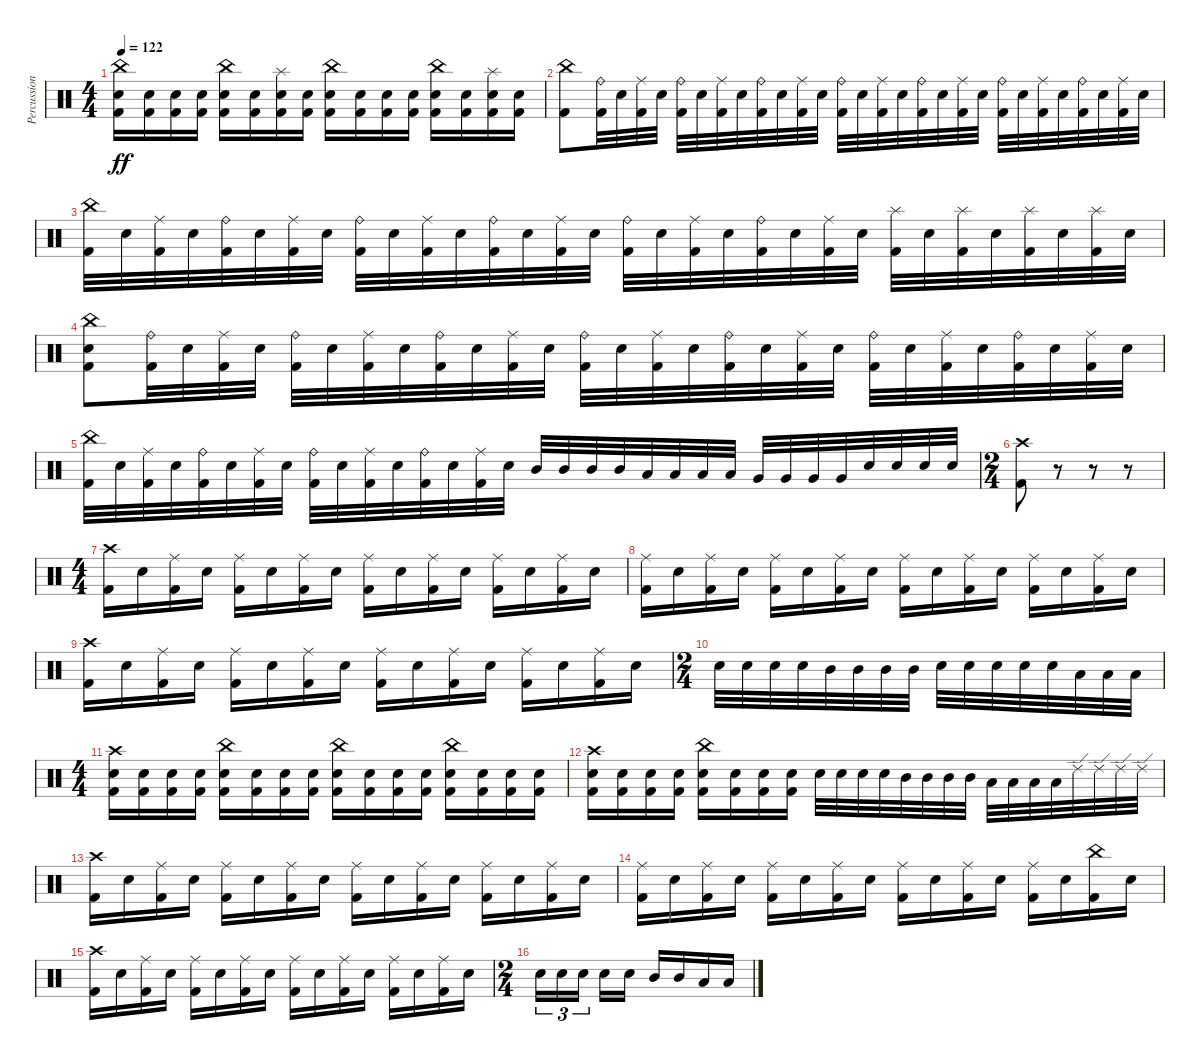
\track ("Percussion" "Percussion") {instrument percussion}
\staff {score}
\articulation defaults
\ts (4 4)
\tempo 122
\clef neutral
\ks c
("China (hit)" "Electric Snare (hit)" "Kick (hit) 2").16{dy ff} ("Electric Snare (hit)" "Kick (hit) 2").16 ("Electric Snare (hit)" "Kick (hit) 2").16 ("Electric Snare (hit)" "Kick (hit) 2").16 ("China (hit)" "Electric Snare (hit)" "Kick (hit) 2").16 ("Electric Snare (hit)" "Kick (hit) 2").16 ("Splash (hit)" "Electric Snare (hit)" "Kick (hit) 2").16 ("Electric Snare (hit)" "Kick (hit) 2").16 ("China (hit)" "Electric Snare (hit)" "Kick (hit) 2").16 ("Electric Snare (hit)" "Kick (hit) 2").16 ("Electric Snare (hit)" "Kick (hit) 2").16 ("Electric Snare (hit)" "Kick (hit) 2").16 ("China (hit)" "Electric Snare (hit)" "Kick (hit) 2").16 ("Electric Snare (hit)" "Kick (hit) 2").16 ("Splash (hit)" "Electric Snare (hit)" "Kick (hit) 2").16 ("Electric Snare (hit)" "Kick (hit) 2").16 |
("China (hit)" "Kick (hit) 2").8 ("Ride (bell)" "Kick (hit) 2").32 "Electric Snare (hit)".32 ("Ride (middle)" "Kick (hit) 2").32 "Electric Snare (hit)".32 ("Ride (bell)" "Kick (hit) 2").32 "Electric Snare (hit)".32 ("Ride (middle)" "Kick (hit) 2").32 "Electric Snare (hit)".32 ("Ride (bell)" "Kick (hit) 2").32 "Electric Snare (hit)".32 ("Ride (middle)" "Kick (hit) 2").32 "Electric Snare (hit)".32 ("Ride (bell)" "Kick (hit) 2").32 "Electric Snare (hit)".32 ("Ride (middle)" "Kick (hit) 2").32 "Electric Snare (hit)".32 ("Ride (bell)" "Kick (hit) 2").32 "Electric Snare (hit)".32 ("Ride (middle)" "Kick (hit) 2").32 "Electric Snare (hit)".32 ("Ride (bell)" "Kick (hit) 2").32 "Electric Snare (hit)".32 ("Ride (middle)" "Kick (hit) 2").32 "Electric Snare (hit)".32 ("Ride (bell)" "Kick (hit) 2").32 "Electric Snare (hit)".32 ("Ride (middle)" "Kick (hit) 2").32 "Electric Snare (hit)".32 |
("China (hit)" "Kick (hit) 2").32 "Electric Snare (hit)".32 ("Ride (middle)" "Kick (hit) 2").32 "Electric Snare (hit)".32 ("Ride (bell)" "Kick (hit) 2").32 "Electric Snare (hit)".32 ("Ride (middle)" "Kick (hit) 2").32 "Electric Snare (hit)".32 ("Ride (bell)" "Kick (hit) 2").32 "Electric Snare (hit)".32 ("Ride (middle)" "Kick (hit) 2").32 "Electric Snare (hit)".32 ("Ride (bell)" "Kick (hit) 2").32 "Electric Snare (hit)".32 ("Ride (middle)" "Kick (hit) 2").32 "Electric Snare (hit)".32 ("Ride (bell)" "Kick (hit) 2").32 "Electric Snare (hit)".32 ("Ride (middle)" "Kick (hit) 2").32 "Electric Snare (hit)".32 ("Ride (bell)" "Kick (hit) 2").32 "Electric Snare (hit)".32 ("Ride (middle)" "Kick (hit) 2").32 "Electric Snare (hit)".32 ("Splash (hit)" "Kick (hit) 2").32 "Electric Snare (hit)".32 ("Splash (hit)" "Kick (hit) 2").32 "Electric Snare (hit)".32 ("Splash (hit)" "Kick (hit) 2").32 "Electric Snare (hit)".32 ("Splash (hit)" "Kick (hit) 2").32 "Electric Snare (hit)".32 |
("China (hit)" "Electric Snare (hit)" "Kick (hit) 2").8 ("Ride (bell)" "Kick (hit) 2").32 "Electric Snare (hit)".32 ("Ride (middle)" "Kick (hit) 2").32 "Electric Snare (hit)".32 ("Ride (bell)" "Kick (hit) 2").32 "Electric Snare (hit)".32 ("Ride (middle)" "Kick (hit) 2").32 "Electric Snare (hit)".32 ("Ride (bell)" "Kick (hit) 2").32 "Electric Snare (hit)".32 ("Ride (middle)" "Kick (hit) 2").32 "Electric Snare (hit)".32 ("Ride (bell)" "Kick (hit) 2").32 "Electric Snare (hit)".32 ("Ride (middle)" "Kick (hit) 2").32 "Electric Snare (hit)".32 ("Ride (bell)" "Kick (hit) 2").32 "Electric Snare (hit)".32 ("Ride (middle)" "Kick (hit) 2").32 "Electric Snare (hit)".32 ("Ride (bell)" "Kick (hit) 2").32 "Electric Snare (hit)".32 ("Ride (middle)" "Kick (hit) 2").32 "Electric Snare (hit)".32 ("Ride (bell)" "Kick (hit) 2").32 "Electric Snare (hit)".32 ("Ride (middle)" "Kick (hit) 2").32 "Electric Snare (hit)".32 |
("China (hit)" "Kick (hit) 2").32 "Electric Snare (hit)".32 ("Ride (middle)" "Kick (hit) 2").32 "Electric Snare (hit)".32 ("Ride (bell)" "Kick (hit) 2").32 "Electric Snare (hit)".32 ("Ride (middle)" "Kick (hit) 2").32 "Electric Snare (hit)".32 ("Ride (bell)" "Kick (hit) 2").32 "Electric Snare (hit)".32 ("Ride (middle)" "Kick (hit) 2").32 "Electric Snare (hit)".32 ("Ride (bell)" "Kick (hit) 2").32 "Electric Snare (hit)".32 ("Ride (middle)" "Kick (hit) 2").32 "Electric Snare (hit)".32 "Mid Tom (hit)".32 "Mid Tom (hit)".32 "Mid Tom (hit)".32 "Mid Tom (hit)".32 "Low Tom (hit)".32 "Low Tom (hit)".32 "Low Tom (hit)".32 "Low Tom (hit)".32 "Very Low Tom (hit)".32 "Very Low Tom (hit)".32 "Very Low Tom (hit)".32 "Very Low Tom (hit)".32 "Electric Snare (hit)".32 "Electric Snare (hit)".32 "Electric Snare (hit)".32 "Electric Snare (hit)".32 |
\ts (2 4)
("Crash high (hit)" "Kick (hit) 2").8 r.8 r.8 r.8 |
\ts (4 4)
("Crash high (hit)" "Kick (hit) 2").16 "Electric Snare (hit)".16 ("Ride (middle)" "Kick (hit) 2").16 "Electric Snare (hit)".16 ("Ride (middle)" "Kick (hit) 2").16 "Electric Snare (hit)".16 ("Ride (middle)" "Kick (hit) 2").16 "Electric Snare (hit)".16 ("Ride (middle)" "Kick (hit) 2").16 "Electric Snare (hit)".16 ("Ride (middle)" "Kick (hit) 2").16 "Electric Snare (hit)".16 ("Ride (middle)" "Kick (hit) 2").16 "Electric Snare (hit)".16 ("Ride (middle)" "Kick (hit) 2").16 "Electric Snare (hit)".16 |
("Ride (middle)" "Kick (hit) 2").16 "Electric Snare (hit)".16 ("Ride (middle)" "Kick (hit) 2").16 "Electric Snare (hit)".16 ("Ride (middle)" "Kick (hit) 2").16 "Electric Snare (hit)".16 ("Ride (middle)" "Kick (hit) 2").16 "Electric Snare (hit)".16 ("Ride (middle)" "Kick (hit) 2").16 "Electric Snare (hit)".16 ("Ride (middle)" "Kick (hit) 2").16 "Electric Snare (hit)".16 ("Ride (middle)" "Kick (hit) 2").16 "Electric Snare (hit)".16 ("Ride (middle)" "Kick (hit) 2").16 "Electric Snare (hit)".16 |
("Crash high (hit)" "Kick (hit) 2").16 "Electric Snare (hit)".16 ("Ride (middle)" "Kick (hit) 2").16 "Electric Snare (hit)".16 ("Ride (middle)" "Kick (hit) 2").16 "Electric Snare (hit)".16 ("Ride (middle)" "Kick (hit) 2").16 "Electric Snare (hit)".16 ("Ride (middle)" "Kick (hit) 2").16 "Electric Snare (hit)".16 ("Ride (middle)" "Kick (hit) 2").16 "Electric Snare (hit)".16 ("Ride (middle)" "Kick (hit) 2").16 "Electric Snare (hit)".16 ("Ride (middle)" "Kick (hit) 2").16 "Electric Snare (hit)".16 |
\ts (2 4)
"Electric Snare (hit)".32 "Electric Snare (hit)".32 "Electric Snare (hit)".32 "Electric Snare (hit)".32 "Mid Tom (hit)".32 "Mid Tom (hit)".32 "Mid Tom (hit)".32 "Mid Tom (hit)".32 "Electric Snare (hit)".32 "Electric Snare (hit)".32 "Electric Snare (hit)".32 "Electric Snare (hit)".32 "Electric Snare (hit)".32 "Low Tom (hit)".32 "Low Tom (hit)".32 "Low Tom (hit)".32 |
\ts (4 4)
("Crash high (hit)" "Electric Snare (hit)" "Kick (hit) 2").16 ("Electric Snare (hit)" "Kick (hit) 2").16 ("Electric Snare (hit)" "Kick (hit) 2").16 ("Electric Snare (hit)" "Kick (hit) 2").16 ("China (hit)" "Electric Snare (hit)" "Kick (hit) 2").16 ("Electric Snare (hit)" "Kick (hit) 2").16 ("Electric Snare (hit)" "Kick (hit) 2").16 ("Electric Snare (hit)" "Kick (hit) 2").16 ("China (hit)" "Electric Snare (hit)" "Kick (hit) 2").16 ("Electric Snare (hit)" "Kick (hit) 2").16 ("Electric Snare (hit)" "Kick (hit) 2").16 ("Electric Snare (hit)" "Kick (hit) 2").16 ("China (hit)" "Electric Snare (hit)" "Kick (hit) 2").16 ("Electric Snare (hit)" "Kick (hit) 2").16 ("Electric Snare (hit)" "Kick (hit) 2").16 ("Electric Snare (hit)" "Kick (hit) 2").16 |
("Crash high (hit)" "Electric Snare (hit)" "Kick (hit) 2").16 ("Electric Snare (hit)" "Kick (hit) 2").16 ("Electric Snare (hit)" "Kick (hit) 2").16 ("Electric Snare (hit)" "Kick (hit) 2").16 ("China (hit)" "Electric Snare (hit)" "Kick (hit) 2").16 ("Electric Snare (hit)" "Kick (hit) 2").16 ("Electric Snare (hit)" "Kick (hit) 2").16 ("Electric Snare (hit)" "Kick (hit) 2").16 "Electric Snare (hit)".32 "Electric Snare (hit)".32 "Electric Snare (hit)".32 "Electric Snare (hit)".32 "Mid Tom (hit)".32 "Mid Tom (hit)".32 "Mid Tom (hit)".32 "Mid Tom (hit)".32 "Low Tom (hit)".32 "Low Tom (hit)".32 "Low Tom (hit)".32 "Low Tom (hit)".32 "Ride (edge) 2".32 "Ride (edge) 2".32 "Ride (edge) 2".32 "Ride (edge) 2".32 |
("Crash high (hit)" "Kick (hit) 2").16 "Electric Snare (hit)".16 ("Ride (middle)" "Kick (hit) 2").16 "Electric Snare (hit)".16 ("Ride (middle)" "Kick (hit) 2").16 "Electric Snare (hit)".16 ("Ride (middle)" "Kick (hit) 2").16 "Electric Snare (hit)".16 ("Ride (middle)" "Kick (hit) 2").16 "Electric Snare (hit)".16 ("Ride (middle)" "Kick (hit) 2").16 "Electric Snare (hit)".16 ("Ride (middle)" "Kick (hit) 2").16 "Electric Snare (hit)".16 ("Ride (middle)" "Kick (hit) 2").16 "Electric Snare (hit)".16 |
("Ride (middle)" "Kick (hit) 2").16 "Electric Snare (hit)".16 ("Ride (middle)" "Kick (hit) 2").16 "Electric Snare (hit)".16 ("Ride (middle)" "Kick (hit) 2").16 "Electric Snare (hit)".16 ("Ride (middle)" "Kick (hit) 2").16 "Electric Snare (hit)".16 ("Ride (middle)" "Kick (hit) 2").16 "Electric Snare (hit)".16 ("Ride (middle)" "Kick (hit) 2").16 "Electric Snare (hit)".16 ("Ride (middle)" "Kick (hit) 2").16 "Electric Snare (hit)".16 ("China (hit)" "Kick (hit) 2").16 "Electric Snare (hit)".16 |
("Crash high (hit)" "Kick (hit) 2").16 "Electric Snare (hit)".16 ("Ride (middle)" "Kick (hit) 2").16 "Electric Snare (hit)".16 ("Ride (middle)" "Kick (hit) 2").16 "Electric Snare (hit)".16 ("Ride (middle)" "Kick (hit) 2").16 "Electric Snare (hit)".16 ("Ride (middle)" "Kick (hit) 2").16 "Electric Snare (hit)".16 ("Ride (middle)" "Kick (hit) 2").16 "Electric Snare (hit)".16 ("Ride (middle)" "Kick (hit) 2").16 "Electric Snare (hit)".16 ("Ride (middle)" "Kick (hit) 2").16 "Electric Snare (hit)".16 |
\ts (2 4)
"Electric Snare (hit)".16{tu (3 2)} "Electric Snare (hit)".16{tu (3 2)} "Electric Snare (hit)".16{tu (3 2) beam splitsecondary} "Electric Snare (hit)".16 "Electric Snare (hit)".16 "Mid Tom (hit)".16 "Mid Tom (hit)".16 "Low Tom (hit)".16 "Low Tom (hit)".16
